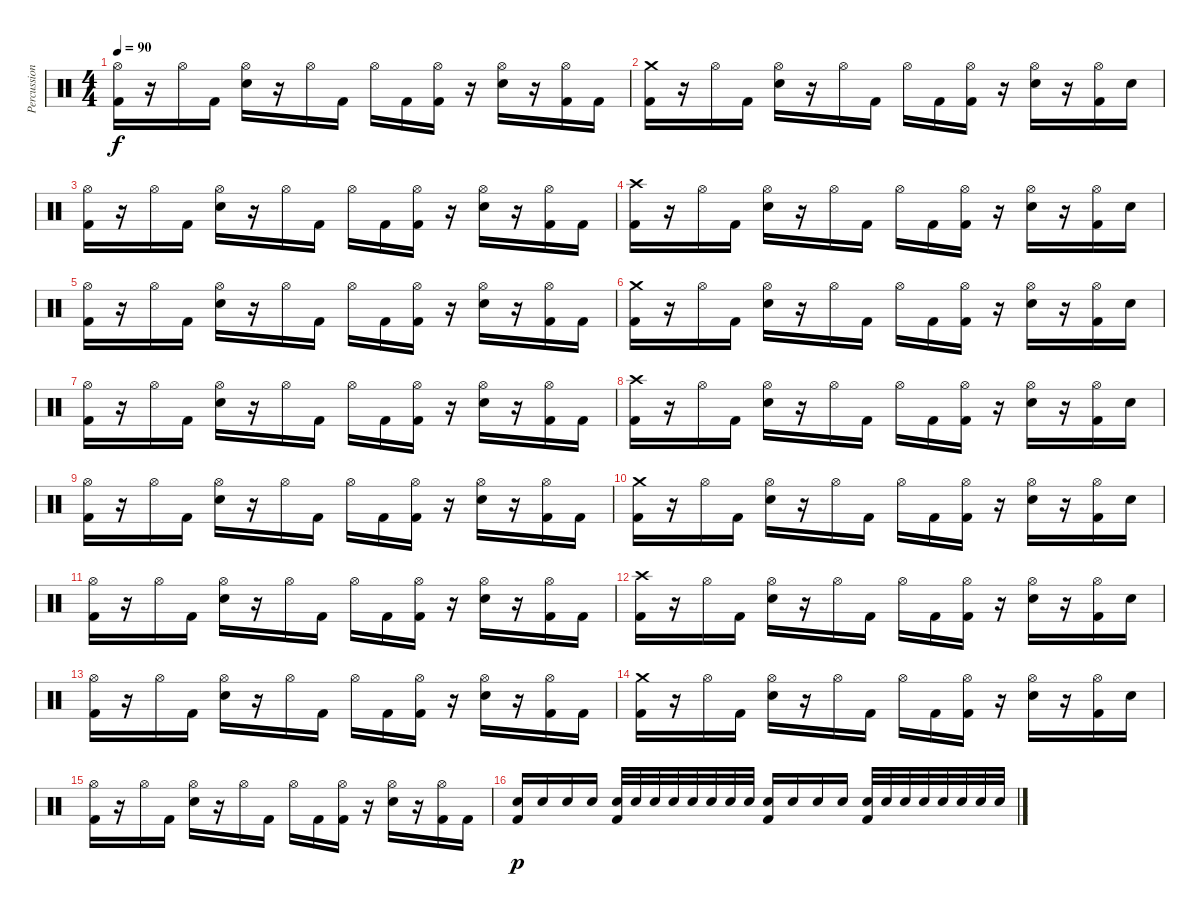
\track ("Percussion" "Percussion") {instrument percussion}
\staff {score}
\articulation defaults
\ts (4 4)
\tempo 90
\clef neutral
\ks c
("Hi-Hat (open)" "Kick (hit) 2").16{dy f} r.16 "Hi-Hat (open)".16 "Kick (hit) 2".16 ("Hi-Hat (open)" "Electric Snare (hit)").16 r.16 "Hi-Hat (open)".16 "Kick (hit) 2".16 "Hi-Hat (open)".16 "Kick (hit) 2".16 ("Hi-Hat (open)" "Kick (hit) 2").16 r.16 ("Hi-Hat (open)" "Electric Snare (hit)").16 r.16 ("Hi-Hat (open)" "Kick (hit) 2").16 "Kick (hit) 2".16 |
("Crash medium (hit)" "Kick (hit) 2").16 r.16 "Hi-Hat (open)".16 "Kick (hit) 2".16 ("Hi-Hat (open)" "Electric Snare (hit)").16 r.16 "Hi-Hat (open)".16 "Kick (hit) 2".16 "Hi-Hat (open)".16 "Kick (hit) 2".16 ("Hi-Hat (open)" "Kick (hit) 2").16 r.16 ("Hi-Hat (open)" "Electric Snare (hit)").16 r.16 ("Hi-Hat (open)" "Kick (hit) 2").16 "Electric Snare (hit)".16 |
("Hi-Hat (open)" "Kick (hit) 2").16 r.16 "Hi-Hat (open)".16 "Kick (hit) 2".16 ("Hi-Hat (open)" "Electric Snare (hit)").16 r.16 "Hi-Hat (open)".16 "Kick (hit) 2".16 "Hi-Hat (open)".16 "Kick (hit) 2".16 ("Hi-Hat (open)" "Kick (hit) 2").16 r.16 ("Hi-Hat (open)" "Electric Snare (hit)").16 r.16 ("Hi-Hat (open)" "Kick (hit) 2").16 "Kick (hit) 2".16 |
("Crash high (hit)" "Kick (hit) 2").16 r.16 "Hi-Hat (open)".16 "Kick (hit) 2".16 ("Hi-Hat (open)" "Electric Snare (hit)").16 r.16 "Hi-Hat (open)".16 "Kick (hit) 2".16 "Hi-Hat (open)".16 "Kick (hit) 2".16 ("Hi-Hat (open)" "Kick (hit) 2").16 r.16 ("Hi-Hat (open)" "Electric Snare (hit)").16 r.16 ("Hi-Hat (open)" "Kick (hit) 2").16 "Electric Snare (hit)".16 |
("Hi-Hat (open)" "Kick (hit) 2").16 r.16 "Hi-Hat (open)".16 "Kick (hit) 2".16 ("Hi-Hat (open)" "Electric Snare (hit)").16 r.16 "Hi-Hat (open)".16 "Kick (hit) 2".16 "Hi-Hat (open)".16 "Kick (hit) 2".16 ("Hi-Hat (open)" "Kick (hit) 2").16 r.16 ("Hi-Hat (open)" "Electric Snare (hit)").16 r.16 ("Hi-Hat (open)" "Kick (hit) 2").16 "Kick (hit) 2".16 |
("Crash medium (hit)" "Kick (hit) 2").16 r.16 "Hi-Hat (open)".16 "Kick (hit) 2".16 ("Hi-Hat (open)" "Electric Snare (hit)").16 r.16 "Hi-Hat (open)".16 "Kick (hit) 2".16 "Hi-Hat (open)".16 "Kick (hit) 2".16 ("Hi-Hat (open)" "Kick (hit) 2").16 r.16 ("Hi-Hat (open)" "Electric Snare (hit)").16 r.16 ("Hi-Hat (open)" "Kick (hit) 2").16 "Electric Snare (hit)".16 |
("Hi-Hat (open)" "Kick (hit) 2").16 r.16 "Hi-Hat (open)".16 "Kick (hit) 2".16 ("Hi-Hat (open)" "Electric Snare (hit)").16 r.16 "Hi-Hat (open)".16 "Kick (hit) 2".16 "Hi-Hat (open)".16 "Kick (hit) 2".16 ("Hi-Hat (open)" "Kick (hit) 2").16 r.16 ("Hi-Hat (open)" "Electric Snare (hit)").16 r.16 ("Hi-Hat (open)" "Kick (hit) 2").16 "Kick (hit) 2".16 |
("Crash high (hit)" "Kick (hit) 2").16 r.16 "Hi-Hat (open)".16 "Kick (hit) 2".16 ("Hi-Hat (open)" "Electric Snare (hit)").16 r.16 "Hi-Hat (open)".16 "Kick (hit) 2".16 "Hi-Hat (open)".16 "Kick (hit) 2".16 ("Hi-Hat (open)" "Kick (hit) 2").16 r.16 ("Hi-Hat (open)" "Electric Snare (hit)").16 r.16 ("Hi-Hat (open)" "Kick (hit) 2").16 "Electric Snare (hit)".16 |
("Hi-Hat (open)" "Kick (hit) 2").16 r.16 "Hi-Hat (open)".16 "Kick (hit) 2".16 ("Hi-Hat (open)" "Electric Snare (hit)").16 r.16 "Hi-Hat (open)".16 "Kick (hit) 2".16 "Hi-Hat (open)".16 "Kick (hit) 2".16 ("Hi-Hat (open)" "Kick (hit) 2").16 r.16 ("Hi-Hat (open)" "Electric Snare (hit)").16 r.16 ("Hi-Hat (open)" "Kick (hit) 2").16 "Kick (hit) 2".16 |
("Crash medium (hit)" "Kick (hit) 2").16 r.16 "Hi-Hat (open)".16 "Kick (hit) 2".16 ("Hi-Hat (open)" "Electric Snare (hit)").16 r.16 "Hi-Hat (open)".16 "Kick (hit) 2".16 "Hi-Hat (open)".16 "Kick (hit) 2".16 ("Hi-Hat (open)" "Kick (hit) 2").16 r.16 ("Hi-Hat (open)" "Electric Snare (hit)").16 r.16 ("Hi-Hat (open)" "Kick (hit) 2").16 "Electric Snare (hit)".16 |
("Hi-Hat (open)" "Kick (hit) 2").16 r.16 "Hi-Hat (open)".16 "Kick (hit) 2".16 ("Hi-Hat (open)" "Electric Snare (hit)").16 r.16 "Hi-Hat (open)".16 "Kick (hit) 2".16 "Hi-Hat (open)".16 "Kick (hit) 2".16 ("Hi-Hat (open)" "Kick (hit) 2").16 r.16 ("Hi-Hat (open)" "Electric Snare (hit)").16 r.16 ("Hi-Hat (open)" "Kick (hit) 2").16 "Kick (hit) 2".16 |
("Crash high (hit)" "Kick (hit) 2").16 r.16 "Hi-Hat (open)".16 "Kick (hit) 2".16 ("Hi-Hat (open)" "Electric Snare (hit)").16 r.16 "Hi-Hat (open)".16 "Kick (hit) 2".16 "Hi-Hat (open)".16 "Kick (hit) 2".16 ("Hi-Hat (open)" "Kick (hit) 2").16 r.16 ("Hi-Hat (open)" "Electric Snare (hit)").16 r.16 ("Hi-Hat (open)" "Kick (hit) 2").16 "Electric Snare (hit)".16 |
("Hi-Hat (open)" "Kick (hit) 2").16 r.16 "Hi-Hat (open)".16 "Kick (hit) 2".16 ("Hi-Hat (open)" "Electric Snare (hit)").16 r.16 "Hi-Hat (open)".16 "Kick (hit) 2".16 "Hi-Hat (open)".16 "Kick (hit) 2".16 ("Hi-Hat (open)" "Kick (hit) 2").16 r.16 ("Hi-Hat (open)" "Electric Snare (hit)").16 r.16 ("Hi-Hat (open)" "Kick (hit) 2").16 "Kick (hit) 2".16 |
("Crash medium (hit)" "Kick (hit) 2").16 r.16 "Hi-Hat (open)".16 "Kick (hit) 2".16 ("Hi-Hat (open)" "Electric Snare (hit)").16 r.16 "Hi-Hat (open)".16 "Kick (hit) 2".16 "Hi-Hat (open)".16 "Kick (hit) 2".16 ("Hi-Hat (open)" "Kick (hit) 2").16 r.16 ("Hi-Hat (open)" "Electric Snare (hit)").16 r.16 ("Hi-Hat (open)" "Kick (hit) 2").16 "Electric Snare (hit)".16 |
("Hi-Hat (open)" "Kick (hit) 2").16 r.16 "Hi-Hat (open)".16 "Kick (hit) 2".16 ("Hi-Hat (open)" "Electric Snare (hit)").16 r.16 "Hi-Hat (open)".16 "Kick (hit) 2".16 "Hi-Hat (open)".16 "Kick (hit) 2".16 ("Hi-Hat (open)" "Kick (hit) 2").16 r.16 ("Hi-Hat (open)" "Electric Snare (hit)").16 r.16 ("Hi-Hat (open)" "Kick (hit) 2").16 "Kick (hit) 2".16 |
("Electric Snare (hit)" "Kick (hit) 2").16{dy p} "Electric Snare (hit)".16 "Electric Snare (hit)".16 "Electric Snare (hit)".16 ("Electric Snare (hit)" "Kick (hit) 2").32 "Electric Snare (hit)".32 "Electric Snare (hit)".32 "Electric Snare (hit)".32 "Electric Snare (hit)".32 "Electric Snare (hit)".32 "Electric Snare (hit)".32 "Electric Snare (hit)".32 ("Electric Snare (hit)" "Kick (hit) 2").16 "Electric Snare (hit)".16 "Electric Snare (hit)".16 "Electric Snare (hit)".16 ("Electric Snare (hit)" "Kick (hit) 2").32 "Electric Snare (hit)".32 "Electric Snare (hit)".32 "Electric Snare (hit)".32 "Electric Snare (hit)".32 "Electric Snare (hit)".32 "Electric Snare (hit)".32 "Electric Snare (hit)".32
